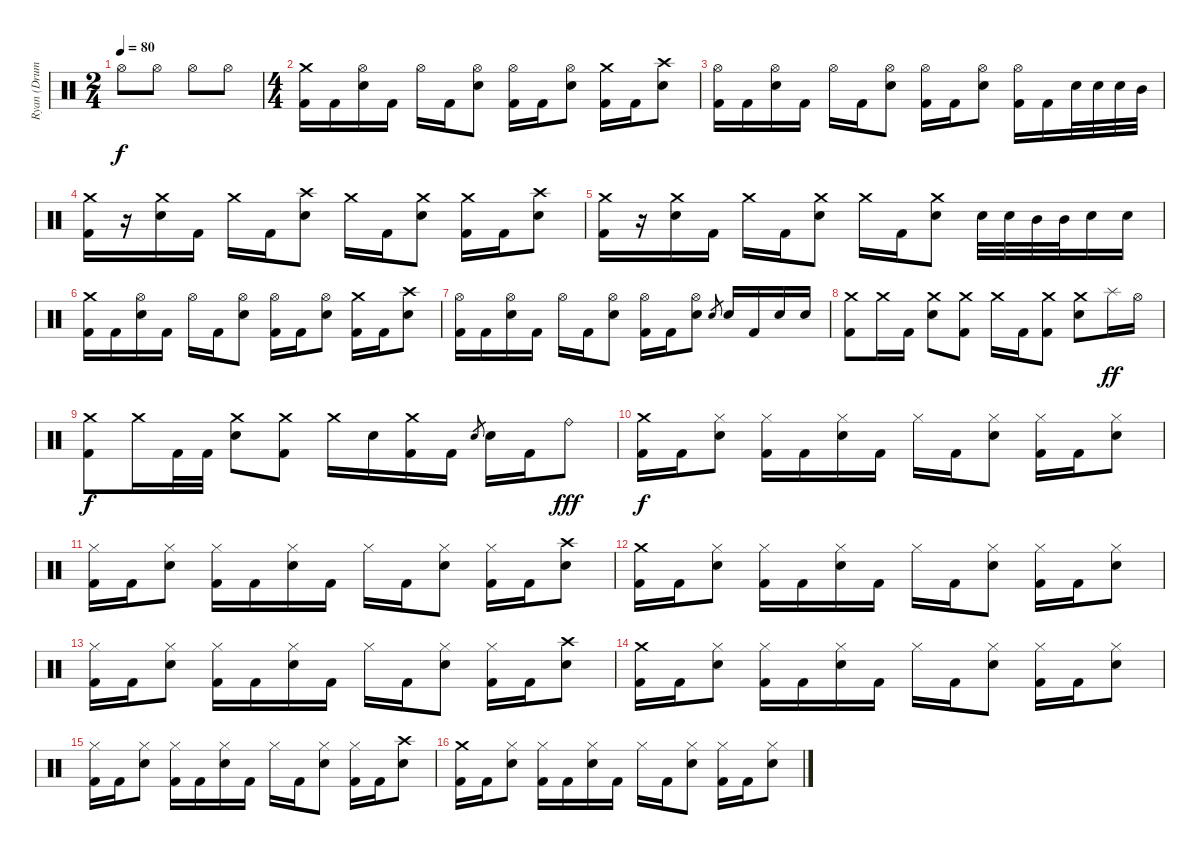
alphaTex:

\track ("Ryan (Drums)" "Ryan (Drum") {instrument percussion}
\staff {score}
\articulation defaults
\ts (2 4)
\tempo 80
\clef neutral
\ks c "Hi-Hat (open)".8{dy f} "Hi-Hat (open)".8 "Hi-Hat (open)".8 "Hi-Hat (open)".8
|
\ts (4 4)
("Crash medium (hit)" "Kick (hit) 2").16 "Kick (hit) 2".16 ("Hi-Hat (open)" "Electric Snare (hit)").16 "Kick (hit) 2".16 "Hi-Hat (open)".16 "Kick (hit) 2".16 ("Hi-Hat (open)" "Electric Snare (hit)").8 ("Hi-Hat (open)" "Kick (hit) 2").16 "Kick (hit) 2".16 ("Hi-Hat (open)" "Electric Snare (hit)").8 ("Crash medium (hit)" "Kick (hit) 2").16 "Kick (hit) 2".16 ("Crash high (hit)" "Electric Snare (hit)").8 |
("Hi-Hat (open)" "Kick (hit) 2").16 "Kick (hit) 2".16 ("Hi-Hat (open)" "Electric Snare (hit)").16 "Kick (hit) 2".16 "Hi-Hat (open)".16 "Kick (hit) 2".16 ("Hi-Hat (open)" "Electric Snare (hit)").8 ("Hi-Hat (open)" "Kick (hit) 2").16 "Kick (hit) 2".16 ("Hi-Hat (open)" "Electric Snare (hit)").8 ("Hi-Hat (open)" "Kick (hit) 2").16 "Kick (hit) 2".16 "Electric Snare (hit)".32 "Electric Snare (hit)".32 "Electric Snare (hit)".32 "Mid Tom (hit)".32 |
("Crash medium (hit)" "Kick (hit) 2").16 r.16 ("Crash medium (hit)" "Electric Snare (hit)").16 "Kick (hit) 2".16 "Crash medium (hit)".16 "Kick (hit) 2".16 ("Crash high (hit)" "Electric Snare (hit)").8 "Crash medium (hit)".16 "Kick (hit) 2".16 ("Crash medium (hit)" "Electric Snare (hit)").8 ("Crash medium (hit)" "Kick (hit) 2").16 "Kick (hit) 2".16 ("Crash high (hit)" "Electric Snare (hit)").8 |
("Crash medium (hit)" "Kick (hit) 2").16 r.16 ("Crash medium (hit)" "Electric Snare (hit)").16 "Kick (hit) 2".16 "Crash medium (hit)".16 "Kick (hit) 2".16 ("Crash medium (hit)" "Electric Snare (hit)").8 "Crash medium (hit)".16 "Kick (hit) 2".16 ("Crash medium (hit)" "Electric Snare (hit)").8 "Electric Snare (hit)".32 "Electric Snare (hit)".32 "Mid Tom (hit)".32 "Mid Tom (hit)".32 "Electric Snare (hit)".16 "Electric Snare (hit)".16 |
("Crash medium (hit)" "Kick (hit) 2").16 "Kick (hit) 2".16 ("Hi-Hat (open)" "Electric Snare (hit)").16 "Kick (hit) 2".16 "Hi-Hat (open)".16 "Kick (hit) 2".16 ("Hi-Hat (open)" "Electric Snare (hit)").8 ("Hi-Hat (open)" "Kick (hit) 2").16 "Kick (hit) 2".16 ("Hi-Hat (open)" "Electric Snare (hit)").8 ("Crash medium (hit)" "Kick (hit) 2").16 "Kick (hit) 2".16 ("Crash high (hit)" "Electric Snare (hit)").8 |
("Hi-Hat (open)" "Kick (hit) 2").16 "Kick (hit) 2".16 ("Hi-Hat (open)" "Electric Snare (hit)").16 "Kick (hit) 2".16 "Hi-Hat (open)".16 "Kick (hit) 2".16 ("Hi-Hat (open)" "Electric Snare (hit)").8 ("Hi-Hat (open)" "Kick (hit) 2").16 "Kick (hit) 2".16 ("Hi-Hat (open)" "Electric Snare (hit)").8 "Electric Snare (hit)".8{gr} "Electric Snare (hit)".16 "Kick (hit) 2".16 "Electric Snare (hit)".16 "Electric Snare (hit)".16 |
("Crash medium (hit)" "Kick (hit) 2").8 "Crash medium (hit)".16 "Kick (hit) 2".16 ("Crash medium (hit)" "Electric Snare (hit)").8 ("Crash medium (hit)" "Kick (hit) 2").8 "Crash medium (hit)".16 "Kick (hit) 2".16 ("Crash medium (hit)" "Kick (hit) 2").8 ("Crash medium (hit)" "Electric Snare (hit)").8 "Splash (hit)".16{dy ff} "Hi-Hat (open)".16 |
("Crash medium (hit)" "Kick (hit) 2").8{dy f} "Crash medium (hit)".16 "Kick (hit) 2".32 "Kick (hit) 2".32 ("Crash medium (hit)" "Electric Snare (hit)").8 ("Crash medium (hit)" "Kick (hit) 2").8 "Crash medium (hit)".16 "Electric Snare (hit)".16 ("Crash medium (hit)" "Kick (hit) 2").16 "Kick (hit) 2".16 "Electric Snare (hit)".8{gr} "Electric Snare (hit)".16 "Kick (hit) 2".16 "Ride (bell)".8{dy fff} |
("Crash medium (hit)" "Kick (hit) 2").16{dy f} "Kick (hit) 2".16 ("Hi-Hat (closed)" "Electric Snare (hit)").8 ("Hi-Hat (closed)" "Kick (hit) 2").16 "Kick (hit) 2".16 ("Hi-Hat (closed)" "Electric Snare (hit)").16 "Kick (hit) 2".16 "Hi-Hat (closed)".16 "Kick (hit) 2".16 ("Hi-Hat (closed)" "Electric Snare (hit)").8 ("Hi-Hat (closed)" "Kick (hit) 2").16 "Kick (hit) 2".16 ("Hi-Hat (closed)" "Electric Snare (hit)").8 |
("Hi-Hat (closed)" "Kick (hit) 2").16 "Kick (hit) 2".16 ("Hi-Hat (closed)" "Electric Snare (hit)").8 ("Hi-Hat (closed)" "Kick (hit) 2").16 "Kick (hit) 2".16 ("Hi-Hat (closed)" "Electric Snare (hit)").16 "Kick (hit) 2".16 "Hi-Hat (closed)".16 "Kick (hit) 2".16 ("Hi-Hat (closed)" "Electric Snare (hit)").8 ("Hi-Hat (closed)" "Kick (hit) 2").16 "Kick (hit) 2".16 ("Crash high (hit)" "Electric Snare (hit)").8 |
("Crash medium (hit)" "Kick (hit) 2").16 "Kick (hit) 2".16 ("Hi-Hat (closed)" "Electric Snare (hit)").8 ("Hi-Hat (closed)" "Kick (hit) 2").16 "Kick (hit) 2".16 ("Hi-Hat (closed)" "Electric Snare (hit)").16 "Kick (hit) 2".16 "Hi-Hat (closed)".16 "Kick (hit) 2".16 ("Hi-Hat (closed)" "Electric Snare (hit)").8 ("Hi-Hat (closed)" "Kick (hit) 2").16 "Kick (hit) 2".16 ("Hi-Hat (closed)" "Electric Snare (hit)").8 |
("Hi-Hat (closed)" "Kick (hit) 2").16 "Kick (hit) 2".16 ("Hi-Hat (closed)" "Electric Snare (hit)").8 ("Hi-Hat (closed)" "Kick (hit) 2").16 "Kick (hit) 2".16 ("Hi-Hat (closed)" "Electric Snare (hit)").16 "Kick (hit) 2".16 "Hi-Hat (closed)".16 "Kick (hit) 2".16 ("Hi-Hat (closed)" "Electric Snare (hit)").8 ("Hi-Hat (closed)" "Kick (hit) 2").16 "Kick (hit) 2".16 ("Crash high (hit)" "Electric Snare (hit)").8 |
("Crash medium (hit)" "Kick (hit) 2").16 "Kick (hit) 2".16 ("Hi-Hat (closed)" "Electric Snare (hit)").8 ("Hi-Hat (closed)" "Kick (hit) 2").16 "Kick (hit) 2".16 ("Hi-Hat (closed)" "Electric Snare (hit)").16 "Kick (hit) 2".16 "Hi-Hat (closed)".16 "Kick (hit) 2".16 ("Hi-Hat (closed)" "Electric Snare (hit)").8 ("Hi-Hat (closed)" "Kick (hit) 2").16 "Kick (hit) 2".16 ("Hi-Hat (closed)" "Electric Snare (hit)").8 |
("Hi-Hat (closed)" "Kick (hit) 2").16 "Kick (hit) 2".16 ("Hi-Hat (closed)" "Electric Snare (hit)").8 ("Hi-Hat (closed)" "Kick (hit) 2").16 "Kick (hit) 2".16 ("Hi-Hat (closed)" "Electric Snare (hit)").16 "Kick (hit) 2".16 "Hi-Hat (closed)".16 "Kick (hit) 2".16 ("Hi-Hat (closed)" "Electric Snare (hit)").8 ("Hi-Hat (closed)" "Kick (hit) 2").16 "Kick (hit) 2".16 ("Crash high (hit)" "Electric Snare (hit)").8 |
("Crash medium (hit)" "Kick (hit) 2").16 "Kick (hit) 2".16 ("Hi-Hat (closed)" "Electric Snare (hit)").8 ("Hi-Hat (closed)" "Kick (hit) 2").16 "Kick (hit) 2".16 ("Hi-Hat (closed)" "Electric Snare (hit)").16 "Kick (hit) 2".16 "Hi-Hat (closed)".16 "Kick (hit) 2".16 ("Hi-Hat (closed)" "Electric Snare (hit)").8 ("Hi-Hat (closed)" "Kick (hit) 2").16 "Kick (hit) 2".16 ("Hi-Hat (closed)" "Electric Snare (hit)").8
